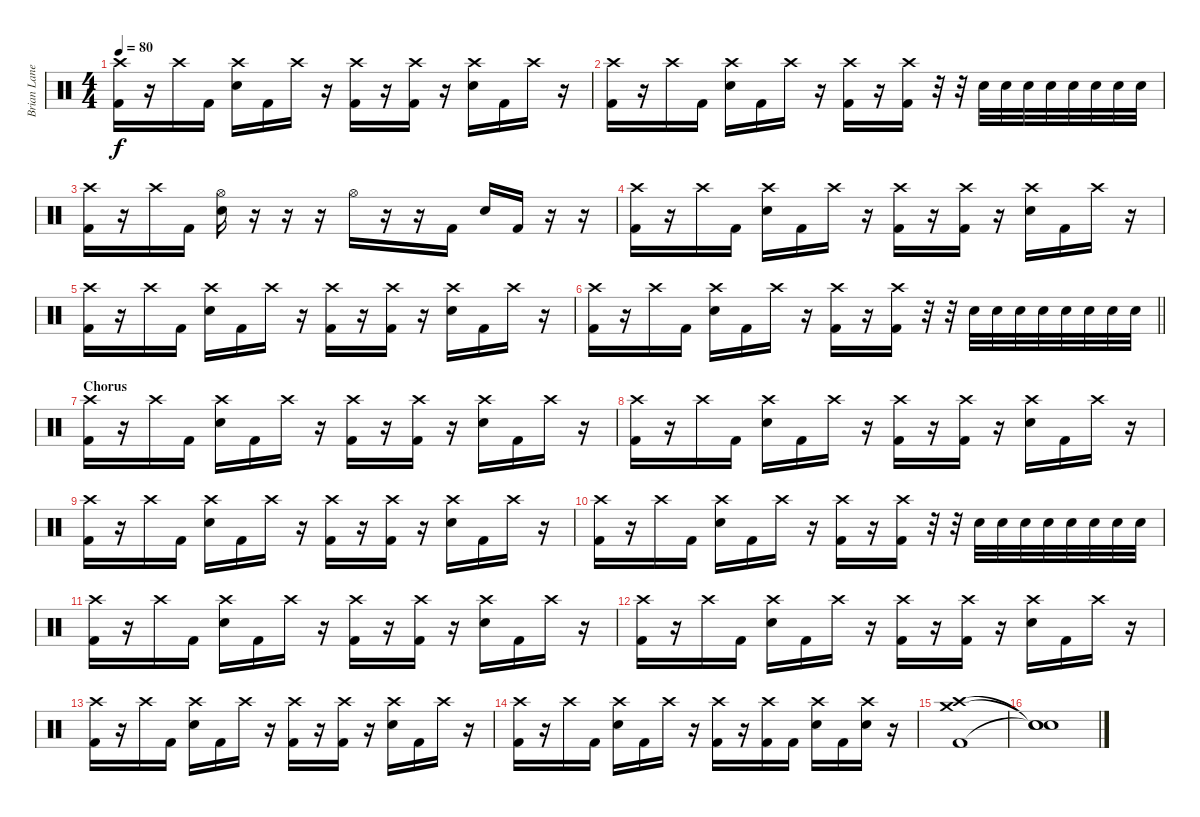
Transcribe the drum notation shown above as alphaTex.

\track ("Brian Lane" "Brian Lane") {instrument percussion}
\staff {score}
\articulation defaults
\ts (4 4)
\tempo 80
\clef neutral
\ks c
("Crash high (hit)" "Kick (hit) 2").16{dy f} r.16 "Crash high (hit)".16 "Kick (hit) 2".16 ("Crash high (hit)" "Electric Snare (hit)").16 "Kick (hit) 2".16 "Crash high (hit)".16 r.16 ("Crash high (hit)" "Kick (hit) 2").16 r.16 ("Crash high (hit)" "Kick (hit) 2").16 r.16 ("Crash high (hit)" "Electric Snare (hit)").16 "Kick (hit) 2".16 "Crash high (hit)".16 r.16 |
("Crash high (hit)" "Kick (hit) 2").16 r.16 "Crash high (hit)".16 "Kick (hit) 2".16 ("Crash high (hit)" "Electric Snare (hit)").16 "Kick (hit) 2".16 "Crash high (hit)".16 r.16 ("Crash high (hit)" "Kick (hit) 2").16 r.16 ("Crash high (hit)" "Kick (hit) 2").16 r.32 r.32 "Electric Snare (hit)".32 "Electric Snare (hit)".32 "Electric Snare (hit)".32 "Electric Snare (hit)".32 "Electric Snare (hit)".32 "Electric Snare (hit)".32 "Electric Snare (hit)".32 "Electric Snare (hit)".32 |
("Crash high (hit)" "Kick (hit) 2").16 r.16 "Crash high (hit)".16 "Kick (hit) 2".16 ("Hi-Hat (open)" "Electric Snare (hit)").16 r.16 r.16 r.16 "Hi-Hat (open)".16 r.16 r.16 "Kick (hit) 2".16 "Electric Snare (hit)".16 "Kick (hit) 2".16 r.16 r.16 |
("Crash high (hit)" "Kick (hit) 2").16 r.16 "Crash high (hit)".16 "Kick (hit) 2".16 ("Crash high (hit)" "Electric Snare (hit)").16 "Kick (hit) 2".16 "Crash high (hit)".16 r.16 ("Crash high (hit)" "Kick (hit) 2").16 r.16 ("Crash high (hit)" "Kick (hit) 2").16 r.16 ("Crash high (hit)" "Electric Snare (hit)").16 "Kick (hit) 2".16 "Crash high (hit)".16 r.16 |
("Crash high (hit)" "Kick (hit) 2").16 r.16 "Crash high (hit)".16 "Kick (hit) 2".16 ("Crash high (hit)" "Electric Snare (hit)").16 "Kick (hit) 2".16 "Crash high (hit)".16 r.16 ("Crash high (hit)" "Kick (hit) 2").16 r.16 ("Crash high (hit)" "Kick (hit) 2").16 r.16 ("Crash high (hit)" "Electric Snare (hit)").16 "Kick (hit) 2".16 "Crash high (hit)".16 r.16 |
\barLineRight lightlight
("Crash high (hit)" "Kick (hit) 2").16 r.16 "Crash high (hit)".16 "Kick (hit) 2".16 ("Crash high (hit)" "Electric Snare (hit)").16 "Kick (hit) 2".16 "Crash high (hit)".16 r.16 ("Crash high (hit)" "Kick (hit) 2").16 r.16 ("Crash high (hit)" "Kick (hit) 2").16 r.32 r.32 "Electric Snare (hit)".32 "Electric Snare (hit)".32 "Electric Snare (hit)".32 "Electric Snare (hit)".32 "Electric Snare (hit)".32 "Electric Snare (hit)".32 "Electric Snare (hit)".32 "Electric Snare (hit)".32 |
\section ("" "Chorus")
("Crash high (hit)" "Kick (hit) 2").16 r.16 "Crash high (hit)".16 "Kick (hit) 2".16 ("Crash high (hit)" "Electric Snare (hit)").16 "Kick (hit) 2".16 "Crash high (hit)".16 r.16 ("Crash high (hit)" "Kick (hit) 2").16 r.16 ("Crash high (hit)" "Kick (hit) 2").16 r.16 ("Crash high (hit)" "Electric Snare (hit)").16 "Kick (hit) 2".16 "Crash high (hit)".16 r.16 |
("Crash high (hit)" "Kick (hit) 2").16 r.16 "Crash high (hit)".16 "Kick (hit) 2".16 ("Crash high (hit)" "Electric Snare (hit)").16 "Kick (hit) 2".16 "Crash high (hit)".16 r.16 ("Crash high (hit)" "Kick (hit) 2").16 r.16 ("Crash high (hit)" "Kick (hit) 2").16 r.16 ("Crash high (hit)" "Electric Snare (hit)").16 "Kick (hit) 2".16 "Crash high (hit)".16 r.16 |
("Crash high (hit)" "Kick (hit) 2").16 r.16 "Crash high (hit)".16 "Kick (hit) 2".16 ("Crash high (hit)" "Electric Snare (hit)").16 "Kick (hit) 2".16 "Crash high (hit)".16 r.16 ("Crash high (hit)" "Kick (hit) 2").16 r.16 ("Crash high (hit)" "Kick (hit) 2").16 r.16 ("Crash high (hit)" "Electric Snare (hit)").16 "Kick (hit) 2".16 "Crash high (hit)".16 r.16 |
("Crash high (hit)" "Kick (hit) 2").16 r.16 "Crash high (hit)".16 "Kick (hit) 2".16 ("Crash high (hit)" "Electric Snare (hit)").16 "Kick (hit) 2".16 "Crash high (hit)".16 r.16 ("Crash high (hit)" "Kick (hit) 2").16 r.16 ("Crash high (hit)" "Kick (hit) 2").16 r.32 r.32 "Electric Snare (hit)".32 "Electric Snare (hit)".32 "Electric Snare (hit)".32 "Electric Snare (hit)".32 "Electric Snare (hit)".32 "Electric Snare (hit)".32 "Electric Snare (hit)".32 "Electric Snare (hit)".32 |
("Crash high (hit)" "Kick (hit) 2").16 r.16 "Crash high (hit)".16 "Kick (hit) 2".16 ("Crash high (hit)" "Electric Snare (hit)").16 "Kick (hit) 2".16 "Crash high (hit)".16 r.16 ("Crash high (hit)" "Kick (hit) 2").16 r.16 ("Crash high (hit)" "Kick (hit) 2").16 r.16 ("Crash high (hit)" "Electric Snare (hit)").16 "Kick (hit) 2".16 "Crash high (hit)".16 r.16 |
("Crash high (hit)" "Kick (hit) 2").16 r.16 "Crash high (hit)".16 "Kick (hit) 2".16 ("Crash high (hit)" "Electric Snare (hit)").16 "Kick (hit) 2".16 "Crash high (hit)".16 r.16 ("Crash high (hit)" "Kick (hit) 2").16 r.16 ("Crash high (hit)" "Kick (hit) 2").16 r.16 ("Crash high (hit)" "Electric Snare (hit)").16 "Kick (hit) 2".16 "Crash high (hit)".16 r.16 |
("Crash high (hit)" "Kick (hit) 2").16 r.16 "Crash high (hit)".16 "Kick (hit) 2".16 ("Crash high (hit)" "Electric Snare (hit)").16 "Kick (hit) 2".16 "Crash high (hit)".16 r.16 ("Crash high (hit)" "Kick (hit) 2").16 r.16 ("Crash high (hit)" "Kick (hit) 2").16 r.16 ("Crash high (hit)" "Electric Snare (hit)").16 "Kick (hit) 2".16 "Crash high (hit)".16 r.16 |
("Crash high (hit)" "Kick (hit) 2").16 r.16 "Crash high (hit)".16 "Kick (hit) 2".16 ("Crash high (hit)" "Electric Snare (hit)").16 "Kick (hit) 2".16 "Crash high (hit)".16 r.16 ("Crash high (hit)" "Kick (hit) 2").16 r.16 ("Crash high (hit)" "Kick (hit) 2").16 "Kick (hit) 2".16 ("Crash high (hit)" "Electric Snare (hit)").16 "Kick (hit) 2".16 ("Crash high (hit)" "Electric Snare (hit)").16 r.16 |
("Crash high (hit)" "Crash medium (hit)" "Kick (hit) 2").1 |
("Snare (hit)"{t} "Snare (hit)"{t} "Snare (hit)"{t}).1
